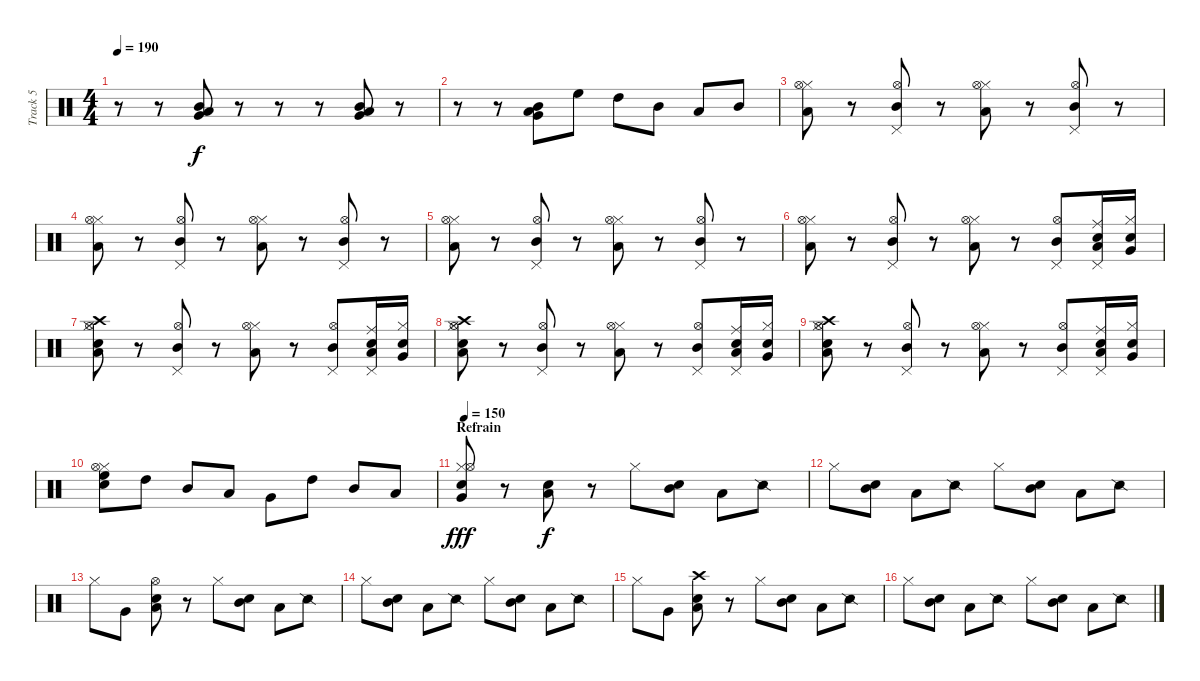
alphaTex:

\track ("Track 5" "Track 5") {instrument percussion}
\staff {score}
\articulation defaults
\ts (4 4)
\tempo 190
\clef neutral
\ks c
r.8{dy f} r.8 ("Low Tom (hit)" "Very Low Tom (hit)" "Mid Tom (hit)").8 r.8 r.8 r.8 ("Mid Tom (hit)" "Low Tom (hit)" "Very Low Tom (hit)").8 r.8 |
r.8 r.8 ("Mid Tom (hit)" "Low Tom (hit)" "Very Low Tom (hit)").8 "High Floor Tom (hit)".8 "High Tom (hit)".8 "Mid Tom (hit)".8 "Low Tom (hit)".8 "Mid Tom (hit)".8 |
("Low Tom (hit)" "Hi-Hat (closed)" "Hi-Hat (open)").8 r.8 ("Mid Tom (hit)" "Pedal Hi-Hat (hit)" "Hi-Hat (open)").8 r.8 ("Low Tom (hit)" "Hi-Hat (closed)" "Hi-Hat (open)").8 r.8 ("Mid Tom (hit)" "Pedal Hi-Hat (hit)" "Hi-Hat (open)").8 r.8 |
("Low Tom (hit)" "Hi-Hat (closed)" "Hi-Hat (open)").8 r.8 ("Mid Tom (hit)" "Pedal Hi-Hat (hit)" "Hi-Hat (open)").8 r.8 ("Low Tom (hit)" "Hi-Hat (closed)" "Hi-Hat (open)").8 r.8 ("Mid Tom (hit)" "Pedal Hi-Hat (hit)" "Hi-Hat (open)").8 r.8 |
("Low Tom (hit)" "Hi-Hat (closed)" "Hi-Hat (open)").8 r.8 ("Mid Tom (hit)" "Pedal Hi-Hat (hit)" "Hi-Hat (open)").8 r.8 ("Low Tom (hit)" "Hi-Hat (closed)" "Hi-Hat (open)").8 r.8 ("Mid Tom (hit)" "Pedal Hi-Hat (hit)" "Hi-Hat (open)").8 r.8 |
("Low Tom (hit)" "Hi-Hat (closed)" "Hi-Hat (open)").8 r.8 ("Mid Tom (hit)" "Pedal Hi-Hat (hit)" "Hi-Hat (open)").8 r.8 ("Low Tom (hit)" "Hi-Hat (closed)" "Hi-Hat (open)").8 r.8 ("Mid Tom (hit)" "Pedal Hi-Hat (hit)" "Hi-Hat (open)").8 ("Low Tom (hit)" "Pedal Hi-Hat (hit)" "Ride (middle)" "Electric Snare (hit)").16 ("Very Low Tom (hit)" "Hi-Hat (closed)" "Snare (hit) 2").16 |
("Low Tom (hit)" "Hi-Hat (closed)" "Hi-Hat (open)" "Crash high (hit)" "Electric Snare (hit)").8 r.8 ("Mid Tom (hit)" "Pedal Hi-Hat (hit)" "Hi-Hat (open)").8 r.8 ("Low Tom (hit)" "Hi-Hat (closed)" "Hi-Hat (open)").8 r.8 ("Mid Tom (hit)" "Pedal Hi-Hat (hit)" "Hi-Hat (open)").8 ("Low Tom (hit)" "Pedal Hi-Hat (hit)" "Ride (middle)" "Electric Snare (hit)").16 ("Very Low Tom (hit)" "Hi-Hat (closed)" "Snare (hit) 2").16 |
("Low Tom (hit)" "Hi-Hat (closed)" "Hi-Hat (open)" "Crash high (hit)" "Electric Snare (hit)").8 r.8 ("Mid Tom (hit)" "Pedal Hi-Hat (hit)" "Hi-Hat (open)").8 r.8 ("Low Tom (hit)" "Hi-Hat (closed)" "Hi-Hat (open)").8 r.8 ("Mid Tom (hit)" "Pedal Hi-Hat (hit)" "Hi-Hat (open)").8 ("Low Tom (hit)" "Pedal Hi-Hat (hit)" "Ride (middle)" "Electric Snare (hit)").16 ("Very Low Tom (hit)" "Hi-Hat (closed)" "Snare (hit) 2").16 |
("Low Tom (hit)" "Hi-Hat (closed)" "Hi-Hat (open)" "Crash high (hit)" "Electric Snare (hit)").8 r.8 ("Mid Tom (hit)" "Pedal Hi-Hat (hit)" "Hi-Hat (open)").8 r.8 ("Low Tom (hit)" "Hi-Hat (closed)" "Hi-Hat (open)").8 r.8 ("Mid Tom (hit)" "Pedal Hi-Hat (hit)" "Hi-Hat (open)").8 ("Low Tom (hit)" "Pedal Hi-Hat (hit)" "Ride (middle)" "Electric Snare (hit)").16 ("Very Low Tom (hit)" "Hi-Hat (closed)" "Snare (hit) 2").16 |
("High Floor Tom (hit)" "Hi-Hat (closed)" "Hi-Hat (open)" "Snare (hit) 2").8 "High Tom (hit)".8 "Mid Tom (hit)".8 "Low Tom (hit)".8 "Very Low Tom (hit)".8 "High Tom (hit)".8 "Mid Tom (hit)".8 "Low Tom (hit)".8 |
\section ("" "Refrain")
\tempo 150
("Very Low Tom (hit)" "Hi-Hat (closed)" "Hi-Hat (open)" "Electric Snare (hit)").8{dy fff} r.8 ("Low Tom (hit)" "Snare (hit) 2").8{dy f} r.8 "Hi-Hat (closed)".8 ("Mid Tom (hit)" "Electric Snare (hit)").8 "Low Tom (hit)".8 "Snare (side stick) 2".8 |
"Hi-Hat (closed)".8 ("Mid Tom (hit)" "Electric Snare (hit)").8 "Low Tom (hit)".8 "Snare (side stick) 2".8 "Hi-Hat (closed)".8 ("Mid Tom (hit)" "Electric Snare (hit)").8 "Low Tom (hit)".8 "Snare (side stick) 2".8 |
"Hi-Hat (closed)".8 "Very Low Tom (hit)".8 ("Low Tom (hit)" "Snare (hit) 2" "Hi-Hat (open)").8 r.8 "Hi-Hat (closed)".8 ("Mid Tom (hit)" "Electric Snare (hit)").8 "Low Tom (hit)".8 "Snare (side stick) 2".8 |
"Hi-Hat (closed)".8 ("Mid Tom (hit)" "Electric Snare (hit)").8 "Low Tom (hit)".8 "Snare (side stick) 2".8 "Hi-Hat (closed)".8 ("Mid Tom (hit)" "Electric Snare (hit)").8 "Low Tom (hit)".8 "Snare (side stick) 2".8 |
"Hi-Hat (closed)".8 "Very Low Tom (hit)".8 ("Low Tom (hit)" "Snare (hit) 2" "Crash high (hit)").8 r.8 "Hi-Hat (closed)".8 ("Mid Tom (hit)" "Electric Snare (hit)").8 "Low Tom (hit)".8 "Snare (side stick) 2".8 |
"Hi-Hat (closed)".8 ("Mid Tom (hit)" "Electric Snare (hit)").8 "Low Tom (hit)".8 "Snare (side stick) 2".8 "Hi-Hat (closed)".8 ("Mid Tom (hit)" "Electric Snare (hit)").8 "Low Tom (hit)".8 "Snare (side stick) 2".8
